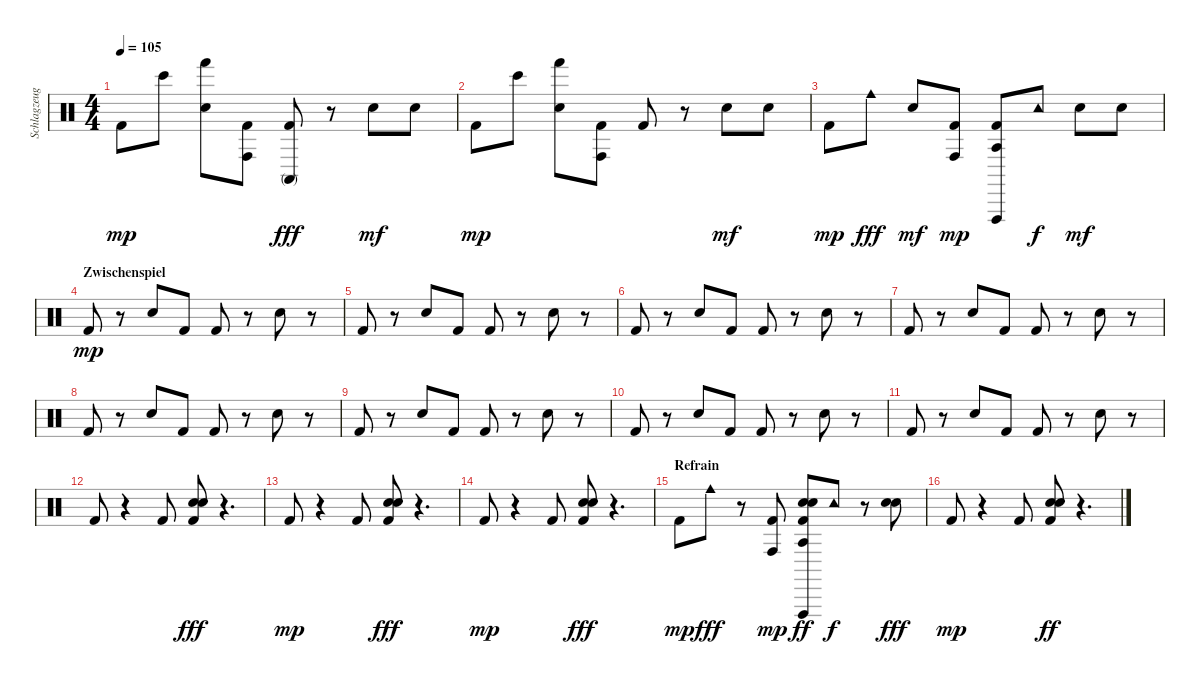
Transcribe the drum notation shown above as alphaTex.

\track ("Schlagzeug" "Schlagzeug") {instrument percussion}
\staff {score}
\articulation defaults
\ts (4 4)
\tempo 105
\clef neutral
\ks c "Kick (hit) 2".8{dy mp} "Bongo High (hit)".8
("Hand Clap (hit)" "Hand (hit)").8 ("Kick (hit) 2" "Conga high (hit)").8 ("Kick (hit) 2" "Conga high (mute)").8{dy fff} r.8 "Hand Clap (hit)".8{dy mf} "Hand Clap (hit)".8 |
"Kick (hit) 2".8{dy mp} "Bongo High (hit)".8 ("Hand Clap (hit)" "Hand (hit)").8 ("Kick (hit) 2" "Conga high (hit)").8 "Kick (hit) 2".8 r.8 "Hand Clap (hit)".8{dy mf} "Hand Clap (hit)".8 |
"Kick (hit) 2".8{dy mp} "Cowbell medium (hit)".8{dy fff} "Hand Clap (hit)".8{dy mf} ("Kick (hit) 2" "Conga high (hit)").8{dy mp} ("Agogo tow (hit)" "Vibraslap (hit)" "Kick (hit) 2").8 "Tambourine (hit)".8{dy f} "Hand Clap (hit)".8{dy mf} "Hand Clap (hit)".8 |
\section ("" "Zwischenspiel")
"Kick (hit) 2".8{dy mp} r.8 "Hand Clap (hit)".8 "Kick (hit) 2".8 "Kick (hit) 2".8 r.8 "Hand Clap (hit)".8 r.8 |
"Kick (hit) 2".8 r.8 "Hand Clap (hit)".8 "Kick (hit) 2".8 "Kick (hit) 2".8 r.8 "Hand Clap (hit)".8 r.8 |
"Kick (hit) 2".8 r.8 "Hand Clap (hit)".8 "Kick (hit) 2".8 "Kick (hit) 2".8 r.8 "Hand Clap (hit)".8 r.8 |
"Kick (hit) 2".8 r.8 "Hand Clap (hit)".8 "Kick (hit) 2".8 "Kick (hit) 2".8 r.8 "Hand Clap (hit)".8 r.8 |
"Kick (hit) 2".8 r.8 "Hand Clap (hit)".8 "Kick (hit) 2".8 "Kick (hit) 2".8 r.8 "Hand Clap (hit)".8 r.8 |
"Kick (hit) 2".8 r.8 "Hand Clap (hit)".8 "Kick (hit) 2".8 "Kick (hit) 2".8 r.8 "Hand Clap (hit)".8 r.8 |
"Kick (hit) 2".8 r.8 "Hand Clap (hit)".8 "Kick (hit) 2".8 "Kick (hit) 2".8 r.8 "Hand Clap (hit)".8 r.8 |
"Kick (hit) 2".8 r.8 "Hand Clap (hit)".8 "Kick (hit) 2".8 "Kick (hit) 2".8 r.8 "Hand Clap (hit)".8 r.8 |
"Kick (hit) 2".8 r.4 "Kick (hit) 2".8 ("Kick (hit) 2" "Snare (hit) 2" "Electric Snare (hit)").8{dy fff} r.4{d} |
"Kick (hit) 2".8{dy mp} r.4 "Kick (hit) 2".8 ("Kick (hit) 2" "Snare (hit) 2" "Electric Snare (hit)").8{dy fff} r.4{d} |
"Kick (hit) 2".8{dy mp} r.4 "Kick (hit) 2".8 ("Kick (hit) 2" "Snare (hit) 2" "Electric Snare (hit)").8{dy fff} r.4{d} |
\section ("" "Refrain")
"Kick (hit) 2".8{dy mp} "Cowbell medium (hit)".8{dy fff} r.8 ("Kick (hit) 2" "Conga high (hit)").8{dy mp} ("Vibraslap (hit)" "Agogo tow (hit)" "Electric Snare (hit)" "Kick (hit) 2" "Snare (hit) 2").8{dy ff} "Tambourine (hit)".8{dy f} r.8 ("Snare (hit) 2" "Electric Snare (hit)").8{dy fff} |
"Kick (hit) 2".8{dy mp} r.4 "Kick (hit) 2".8 ("Electric Snare (hit)" "Kick (hit) 2" "Snare (hit) 2").8{dy ff} r.4{d}
